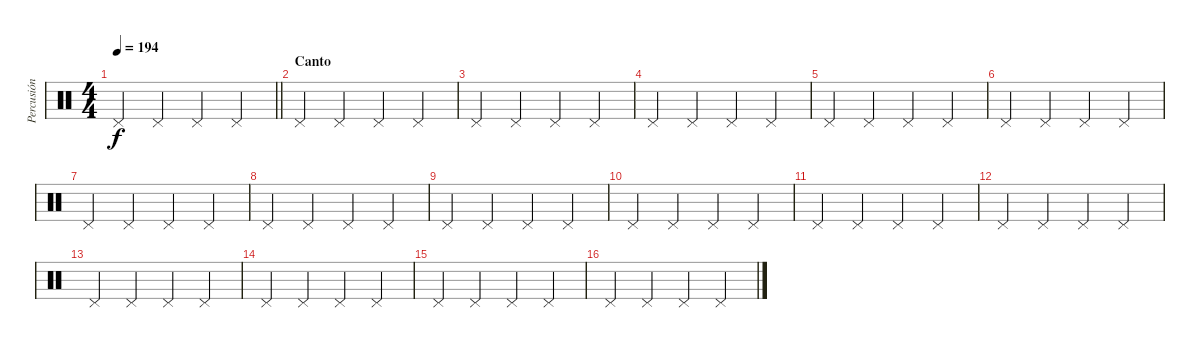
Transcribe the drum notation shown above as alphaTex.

\track ("Percusión" "Percusión") {instrument percussion}
\staff {score}
\articulation defaults
\ts (4 4)
\tempo 194
\clef neutral
\barLineRight lightlight
\ks c "Pedal Hi-Hat (hit)".4{dy f} "Pedal Hi-Hat (hit)".4 "Pedal Hi-Hat (hit)".4 "Pedal Hi-Hat (hit)".4
|
\section ("" "Canto")
"Pedal Hi-Hat (hit)".4 "Pedal Hi-Hat (hit)".4 "Pedal Hi-Hat (hit)".4 "Pedal Hi-Hat (hit)".4 |
"Pedal Hi-Hat (hit)".4 "Pedal Hi-Hat (hit)".4 "Pedal Hi-Hat (hit)".4 "Pedal Hi-Hat (hit)".4 |
"Pedal Hi-Hat (hit)".4 "Pedal Hi-Hat (hit)".4 "Pedal Hi-Hat (hit)".4 "Pedal Hi-Hat (hit)".4 |
"Pedal Hi-Hat (hit)".4 "Pedal Hi-Hat (hit)".4 "Pedal Hi-Hat (hit)".4 "Pedal Hi-Hat (hit)".4 |
"Pedal Hi-Hat (hit)".4 "Pedal Hi-Hat (hit)".4 "Pedal Hi-Hat (hit)".4 "Pedal Hi-Hat (hit)".4 |
"Pedal Hi-Hat (hit)".4 "Pedal Hi-Hat (hit)".4 "Pedal Hi-Hat (hit)".4 "Pedal Hi-Hat (hit)".4 |
"Pedal Hi-Hat (hit)".4 "Pedal Hi-Hat (hit)".4 "Pedal Hi-Hat (hit)".4 "Pedal Hi-Hat (hit)".4 |
"Pedal Hi-Hat (hit)".4 "Pedal Hi-Hat (hit)".4 "Pedal Hi-Hat (hit)".4 "Pedal Hi-Hat (hit)".4 |
"Pedal Hi-Hat (hit)".4 "Pedal Hi-Hat (hit)".4 "Pedal Hi-Hat (hit)".4 "Pedal Hi-Hat (hit)".4 |
"Pedal Hi-Hat (hit)".4 "Pedal Hi-Hat (hit)".4 "Pedal Hi-Hat (hit)".4 "Pedal Hi-Hat (hit)".4 |
"Pedal Hi-Hat (hit)".4 "Pedal Hi-Hat (hit)".4 "Pedal Hi-Hat (hit)".4 "Pedal Hi-Hat (hit)".4 |
"Pedal Hi-Hat (hit)".4 "Pedal Hi-Hat (hit)".4 "Pedal Hi-Hat (hit)".4 "Pedal Hi-Hat (hit)".4 |
"Pedal Hi-Hat (hit)".4 "Pedal Hi-Hat (hit)".4 "Pedal Hi-Hat (hit)".4 "Pedal Hi-Hat (hit)".4 |
"Pedal Hi-Hat (hit)".4 "Pedal Hi-Hat (hit)".4 "Pedal Hi-Hat (hit)".4 "Pedal Hi-Hat (hit)".4 |
"Pedal Hi-Hat (hit)".4 "Pedal Hi-Hat (hit)".4 "Pedal Hi-Hat (hit)".4 "Pedal Hi-Hat (hit)".4
